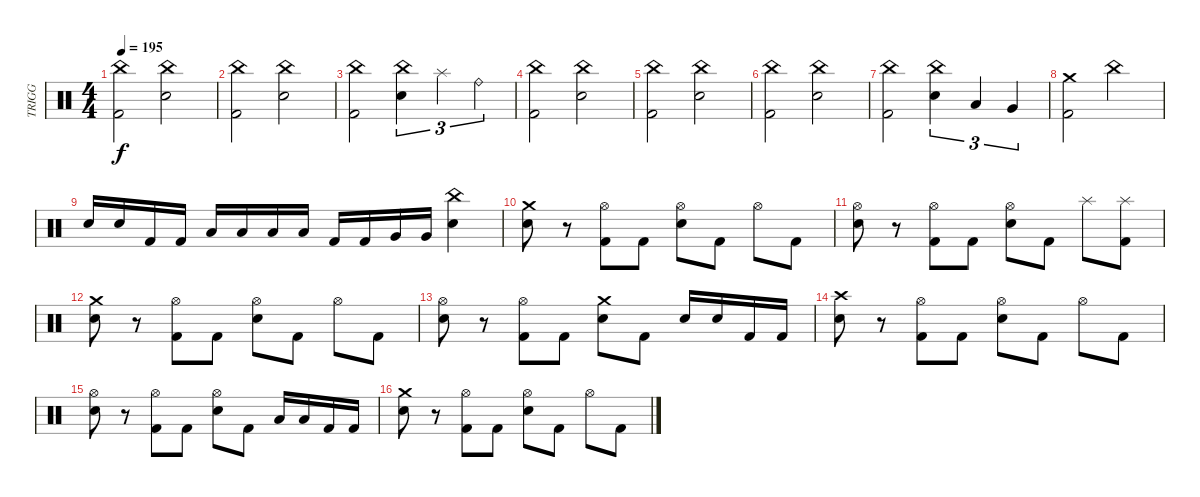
\track ("TRIGG" "TRIGG") {instrument percussion}
\staff {score}
\articulation defaults
\ts (4 4)
\tempo 195
\clef neutral
\ks c
("China (hit)" "Kick (hit) 2").2{dy f} ("China (hit)" "Electric Snare (hit)").2 |
("China (hit)" "Kick (hit) 2").2 ("China (hit)" "Electric Snare (hit)").2 |
("China (hit)" "Kick (hit) 2").2 ("China (hit)" "Electric Snare (hit)").4{tu (3 2)} "Splash (hit)".4{tu (3 2)} "Ride (bell)".4{tu (3 2)} |
("China (hit)" "Kick (hit) 2").2 ("China (hit)" "Electric Snare (hit)").2 |
("China (hit)" "Kick (hit) 2").2 ("China (hit)" "Electric Snare (hit)").2 |
("China (hit)" "Kick (hit) 2").2 ("China (hit)" "Electric Snare (hit)").2 |
("China (hit)" "Kick (hit) 2").2 ("China (hit)" "Electric Snare (hit)").4{tu (3 2)} "Low Tom (hit)".4{tu (3 2)} "Very Low Tom (hit)".4{tu (3 2)} |
("Crash medium (hit)" "Kick (hit) 2").2 "China (hit)".2 |
"Electric Snare (hit)".16 "Electric Snare (hit)".16 "Kick (hit) 2".16 "Kick (hit) 2".16 "Low Tom (hit)".16 "Low Tom (hit)".16 "Low Tom (hit)".16 "Low Tom (hit)".16 "Kick (hit) 2".16 "Kick (hit) 2".16 "Very Low Tom (hit)".16 "Very Low Tom (hit)".16 ("China (hit)" "Electric Snare (hit)").4 |
("Crash medium (hit)" "Electric Snare (hit)").8 r.8 ("Hi-Hat (open)" "Kick (hit) 2").8 "Kick (hit) 2".8 ("Hi-Hat (open)" "Electric Snare (hit)").8 "Kick (hit) 2".8 "Hi-Hat (open)".8 "Kick (hit) 2".8 |
("Hi-Hat (open)" "Electric Snare (hit)").8 r.8 ("Hi-Hat (open)" "Kick (hit) 2").8 "Kick (hit) 2".8 ("Hi-Hat (open)" "Electric Snare (hit)").8 "Kick (hit) 2".8 "Splash (hit)".8 ("Splash (hit)" "Kick (hit) 2").8 |
("Crash medium (hit)" "Electric Snare (hit)").8 r.8 ("Hi-Hat (open)" "Kick (hit) 2").8 "Kick (hit) 2".8 ("Hi-Hat (open)" "Electric Snare (hit)").8 "Kick (hit) 2".8 "Hi-Hat (open)".8 "Kick (hit) 2".8 |
("Hi-Hat (open)" "Electric Snare (hit)").8 r.8 ("Hi-Hat (open)" "Kick (hit) 2").8 "Kick (hit) 2".8 ("Crash medium (hit)" "Electric Snare (hit)").8 "Kick (hit) 2".8 "Electric Snare (hit)".16 "Electric Snare (hit)".16 "Kick (hit) 2".16 "Kick (hit) 2".16 |
("Crash high (hit)" "Electric Snare (hit)").8 r.8 ("Hi-Hat (open)" "Kick (hit) 2").8 "Kick (hit) 2".8 ("Hi-Hat (open)" "Electric Snare (hit)").8 "Kick (hit) 2".8 "Hi-Hat (open)".8 "Kick (hit) 2".8 |
("Hi-Hat (open)" "Electric Snare (hit)").8 r.8 ("Hi-Hat (open)" "Kick (hit) 2").8 "Kick (hit) 2".8 ("Hi-Hat (open)" "Electric Snare (hit)").8 "Kick (hit) 2".8 "Low Tom (hit)".16 "Low Tom (hit)".16 "Kick (hit) 2".16 "Kick (hit) 2".16 |
("Crash medium (hit)" "Electric Snare (hit)").8 r.8 ("Hi-Hat (open)" "Kick (hit) 2").8 "Kick (hit) 2".8 ("Hi-Hat (open)" "Electric Snare (hit)").8 "Kick (hit) 2".8 "Hi-Hat (open)".8 "Kick (hit) 2".8
